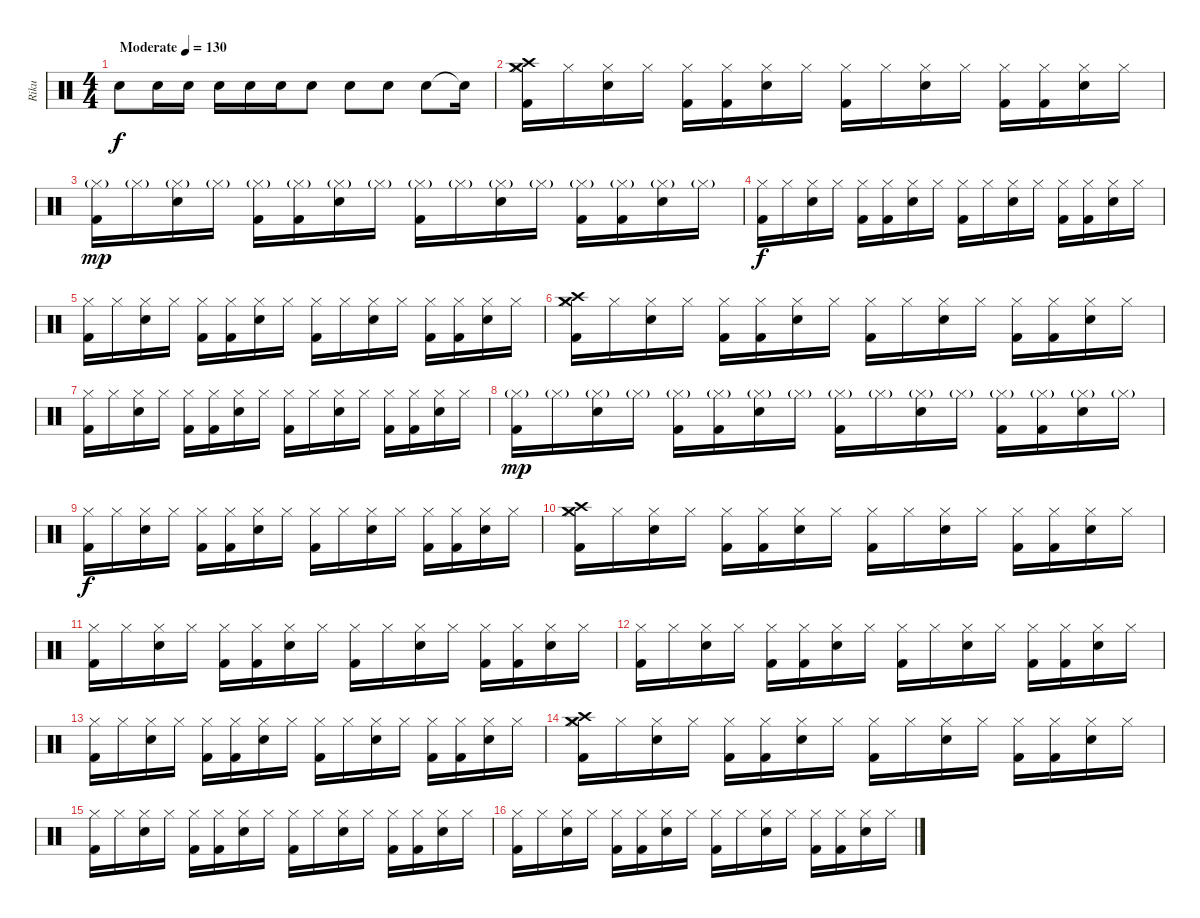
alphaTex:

\track ("Riku" "Riku") {instrument percussion}
\staff {score}
\articulation defaults
\ts (4 4)
\tempo (130 "Moderate")
\clef neutral
\ks c "Electric Snare (hit)".8{dy f} "Electric Snare (hit)".16 "Electric Snare (hit)".16 "Electric Snare (hit)".16 "Electric Snare (hit)".16 "Electric Snare (hit)".16 "Electric Snare (hit)".8 "Electric Snare (hit)".8 "Electric Snare (hit)".8 "Electric Snare (hit)".8 "Snare (hit)"{t}.16
|
("Hi-Hat (closed)" "Kick (hit) 2" "Crash high (hit)" "Crash medium (hit)").16 "Hi-Hat (closed)".16 ("Hi-Hat (closed)" "Snare (hit) 2").16 "Hi-Hat (closed)".16 ("Hi-Hat (closed)" "Kick (hit) 2").16 ("Hi-Hat (closed)" "Kick (hit) 2").16 ("Hi-Hat (closed)" "Snare (hit) 2").16 "Hi-Hat (closed)".16 ("Hi-Hat (closed)" "Kick (hit) 2").16 "Hi-Hat (closed)".16 ("Hi-Hat (closed)" "Snare (hit) 2").16 "Hi-Hat (closed)".16 ("Hi-Hat (closed)" "Kick (hit) 2").16 ("Hi-Hat (closed)" "Kick (hit) 2").16 ("Hi-Hat (closed)" "Snare (hit) 2").16 "Hi-Hat (closed)".16 |
("Hi-Hat (closed)"{g} "Kick (hit) 2").16{dy mp} "Hi-Hat (closed)"{g}.16 ("Hi-Hat (closed)"{g} "Snare (hit) 2").16 "Hi-Hat (closed)"{g}.16 ("Hi-Hat (closed)"{g} "Kick (hit) 2").16 ("Hi-Hat (closed)"{g} "Kick (hit) 2").16 ("Hi-Hat (closed)"{g} "Snare (hit) 2").16 "Hi-Hat (closed)"{g}.16 ("Hi-Hat (closed)"{g} "Kick (hit) 2").16 "Hi-Hat (closed)"{g}.16 ("Hi-Hat (closed)"{g} "Snare (hit) 2").16 "Hi-Hat (closed)"{g}.16 ("Hi-Hat (closed)"{g} "Kick (hit) 2").16 ("Hi-Hat (closed)"{g} "Kick (hit) 2").16 ("Hi-Hat (closed)"{g} "Snare (hit) 2").16 "Hi-Hat (closed)"{g}.16 |
("Hi-Hat (closed)" "Kick (hit) 2").16{dy f} "Hi-Hat (closed)".16 ("Hi-Hat (closed)" "Snare (hit) 2").16 "Hi-Hat (closed)".16 ("Hi-Hat (closed)" "Kick (hit) 2").16 ("Hi-Hat (closed)" "Kick (hit) 2").16 ("Hi-Hat (closed)" "Snare (hit) 2").16 "Hi-Hat (closed)".16 ("Hi-Hat (closed)" "Kick (hit) 2").16 "Hi-Hat (closed)".16 ("Hi-Hat (closed)" "Snare (hit) 2").16 "Hi-Hat (closed)".16 ("Hi-Hat (closed)" "Kick (hit) 2").16 ("Hi-Hat (closed)" "Kick (hit) 2").16 ("Hi-Hat (closed)" "Snare (hit) 2").16 "Hi-Hat (closed)".16 |
("Hi-Hat (closed)" "Kick (hit) 2").16 "Hi-Hat (closed)".16 ("Hi-Hat (closed)" "Snare (hit) 2").16 "Hi-Hat (closed)".16 ("Hi-Hat (closed)" "Kick (hit) 2").16 ("Hi-Hat (closed)" "Kick (hit) 2").16 ("Hi-Hat (closed)" "Snare (hit) 2").16 "Hi-Hat (closed)".16 ("Hi-Hat (closed)" "Kick (hit) 2").16 "Hi-Hat (closed)".16 ("Hi-Hat (closed)" "Snare (hit) 2").16 "Hi-Hat (closed)".16 ("Hi-Hat (closed)" "Kick (hit) 2").16 ("Hi-Hat (closed)" "Kick (hit) 2").16 ("Hi-Hat (closed)" "Snare (hit) 2").16 "Hi-Hat (closed)".16 |
("Hi-Hat (closed)" "Kick (hit) 2" "Crash high (hit)" "Crash medium (hit)").16 "Hi-Hat (closed)".16 ("Hi-Hat (closed)" "Snare (hit) 2").16 "Hi-Hat (closed)".16 ("Hi-Hat (closed)" "Kick (hit) 2").16 ("Hi-Hat (closed)" "Kick (hit) 2").16 ("Hi-Hat (closed)" "Snare (hit) 2").16 "Hi-Hat (closed)".16 ("Hi-Hat (closed)" "Kick (hit) 2").16 "Hi-Hat (closed)".16 ("Hi-Hat (closed)" "Snare (hit) 2").16 "Hi-Hat (closed)".16 ("Hi-Hat (closed)" "Kick (hit) 2").16 ("Hi-Hat (closed)" "Kick (hit) 2").16 ("Hi-Hat (closed)" "Snare (hit) 2").16 "Hi-Hat (closed)".16 |
("Hi-Hat (closed)" "Kick (hit) 2").16 "Hi-Hat (closed)".16 ("Hi-Hat (closed)" "Snare (hit) 2").16 "Hi-Hat (closed)".16 ("Hi-Hat (closed)" "Kick (hit) 2").16 ("Hi-Hat (closed)" "Kick (hit) 2").16 ("Hi-Hat (closed)" "Snare (hit) 2").16 "Hi-Hat (closed)".16 ("Hi-Hat (closed)" "Kick (hit) 2").16 "Hi-Hat (closed)".16 ("Hi-Hat (closed)" "Snare (hit) 2").16 "Hi-Hat (closed)".16 ("Hi-Hat (closed)" "Kick (hit) 2").16 ("Hi-Hat (closed)" "Kick (hit) 2").16 ("Hi-Hat (closed)" "Snare (hit) 2").16 "Hi-Hat (closed)".16 |
("Hi-Hat (closed)"{g} "Kick (hit) 2").16{dy mp} "Hi-Hat (closed)"{g}.16 ("Hi-Hat (closed)"{g} "Snare (hit) 2").16 "Hi-Hat (closed)"{g}.16 ("Hi-Hat (closed)"{g} "Kick (hit) 2").16 ("Hi-Hat (closed)"{g} "Kick (hit) 2").16 ("Hi-Hat (closed)"{g} "Snare (hit) 2").16 "Hi-Hat (closed)"{g}.16 ("Hi-Hat (closed)"{g} "Kick (hit) 2").16 "Hi-Hat (closed)"{g}.16 ("Hi-Hat (closed)"{g} "Snare (hit) 2").16 "Hi-Hat (closed)"{g}.16 ("Hi-Hat (closed)"{g} "Kick (hit) 2").16 ("Hi-Hat (closed)"{g} "Kick (hit) 2").16 ("Hi-Hat (closed)"{g} "Snare (hit) 2").16 "Hi-Hat (closed)"{g}.16 |
("Hi-Hat (closed)" "Kick (hit) 2").16{dy f} "Hi-Hat (closed)".16 ("Hi-Hat (closed)" "Snare (hit) 2").16 "Hi-Hat (closed)".16 ("Hi-Hat (closed)" "Kick (hit) 2").16 ("Hi-Hat (closed)" "Kick (hit) 2").16 ("Hi-Hat (closed)" "Snare (hit) 2").16 "Hi-Hat (closed)".16 ("Hi-Hat (closed)" "Kick (hit) 2").16 "Hi-Hat (closed)".16 ("Hi-Hat (closed)" "Snare (hit) 2").16 "Hi-Hat (closed)".16 ("Hi-Hat (closed)" "Kick (hit) 2").16 ("Hi-Hat (closed)" "Kick (hit) 2").16 ("Hi-Hat (closed)" "Snare (hit) 2").16 "Hi-Hat (closed)".16 |
("Hi-Hat (closed)" "Kick (hit) 2" "Crash high (hit)" "Crash medium (hit)").16 "Hi-Hat (closed)".16 ("Hi-Hat (closed)" "Snare (hit) 2").16 "Hi-Hat (closed)".16 ("Hi-Hat (closed)" "Kick (hit) 2").16 ("Hi-Hat (closed)" "Kick (hit) 2").16 ("Hi-Hat (closed)" "Snare (hit) 2").16 "Hi-Hat (closed)".16 ("Hi-Hat (closed)" "Kick (hit) 2").16 "Hi-Hat (closed)".16 ("Hi-Hat (closed)" "Snare (hit) 2").16 "Hi-Hat (closed)".16 ("Hi-Hat (closed)" "Kick (hit) 2").16 ("Hi-Hat (closed)" "Kick (hit) 2").16 ("Hi-Hat (closed)" "Snare (hit) 2").16 "Hi-Hat (closed)".16 |
("Hi-Hat (closed)" "Kick (hit) 2").16 "Hi-Hat (closed)".16 ("Hi-Hat (closed)" "Snare (hit) 2").16 "Hi-Hat (closed)".16 ("Hi-Hat (closed)" "Kick (hit) 2").16 ("Hi-Hat (closed)" "Kick (hit) 2").16 ("Hi-Hat (closed)" "Snare (hit) 2").16 "Hi-Hat (closed)".16 ("Hi-Hat (closed)" "Kick (hit) 2").16 "Hi-Hat (closed)".16 ("Hi-Hat (closed)" "Snare (hit) 2").16 "Hi-Hat (closed)".16 ("Hi-Hat (closed)" "Kick (hit) 2").16 ("Hi-Hat (closed)" "Kick (hit) 2").16 ("Hi-Hat (closed)" "Snare (hit) 2").16 "Hi-Hat (closed)".16 |
("Hi-Hat (closed)" "Kick (hit) 2").16 "Hi-Hat (closed)".16 ("Hi-Hat (closed)" "Snare (hit) 2").16 "Hi-Hat (closed)".16 ("Hi-Hat (closed)" "Kick (hit) 2").16 ("Hi-Hat (closed)" "Kick (hit) 2").16 ("Hi-Hat (closed)" "Snare (hit) 2").16 "Hi-Hat (closed)".16 ("Hi-Hat (closed)" "Kick (hit) 2").16 "Hi-Hat (closed)".16 ("Hi-Hat (closed)" "Snare (hit) 2").16 "Hi-Hat (closed)".16 ("Hi-Hat (closed)" "Kick (hit) 2").16 ("Hi-Hat (closed)" "Kick (hit) 2").16 ("Hi-Hat (closed)" "Snare (hit) 2").16 "Hi-Hat (closed)".16 |
("Hi-Hat (closed)" "Kick (hit) 2").16 "Hi-Hat (closed)".16 ("Hi-Hat (closed)" "Snare (hit) 2").16 "Hi-Hat (closed)".16 ("Hi-Hat (closed)" "Kick (hit) 2").16 ("Hi-Hat (closed)" "Kick (hit) 2").16 ("Hi-Hat (closed)" "Snare (hit) 2").16 "Hi-Hat (closed)".16 ("Hi-Hat (closed)" "Kick (hit) 2").16 "Hi-Hat (closed)".16 ("Hi-Hat (closed)" "Snare (hit) 2").16 "Hi-Hat (closed)".16 ("Hi-Hat (closed)" "Kick (hit) 2").16 ("Hi-Hat (closed)" "Kick (hit) 2").16 ("Hi-Hat (closed)" "Snare (hit) 2").16 "Hi-Hat (closed)".16 |
("Hi-Hat (closed)" "Kick (hit) 2" "Crash high (hit)" "Crash medium (hit)").16 "Hi-Hat (closed)".16 ("Hi-Hat (closed)" "Snare (hit) 2").16 "Hi-Hat (closed)".16 ("Hi-Hat (closed)" "Kick (hit) 2").16 ("Hi-Hat (closed)" "Kick (hit) 2").16 ("Hi-Hat (closed)" "Snare (hit) 2").16 "Hi-Hat (closed)".16 ("Hi-Hat (closed)" "Kick (hit) 2").16 "Hi-Hat (closed)".16 ("Hi-Hat (closed)" "Snare (hit) 2").16 "Hi-Hat (closed)".16 ("Hi-Hat (closed)" "Kick (hit) 2").16 ("Hi-Hat (closed)" "Kick (hit) 2").16 ("Hi-Hat (closed)" "Snare (hit) 2").16 "Hi-Hat (closed)".16 |
("Hi-Hat (closed)" "Kick (hit) 2").16 "Hi-Hat (closed)".16 ("Hi-Hat (closed)" "Snare (hit) 2").16 "Hi-Hat (closed)".16 ("Hi-Hat (closed)" "Kick (hit) 2").16 ("Hi-Hat (closed)" "Kick (hit) 2").16 ("Hi-Hat (closed)" "Snare (hit) 2").16 "Hi-Hat (closed)".16 ("Hi-Hat (closed)" "Kick (hit) 2").16 "Hi-Hat (closed)".16 ("Hi-Hat (closed)" "Snare (hit) 2").16 "Hi-Hat (closed)".16 ("Hi-Hat (closed)" "Kick (hit) 2").16 ("Hi-Hat (closed)" "Kick (hit) 2").16 ("Hi-Hat (closed)" "Snare (hit) 2").16 "Hi-Hat (closed)".16 |
("Hi-Hat (closed)" "Kick (hit) 2").16 "Hi-Hat (closed)".16 ("Hi-Hat (closed)" "Snare (hit) 2").16 "Hi-Hat (closed)".16 ("Hi-Hat (closed)" "Kick (hit) 2").16 ("Hi-Hat (closed)" "Kick (hit) 2").16 ("Hi-Hat (closed)" "Snare (hit) 2").16 "Hi-Hat (closed)".16 ("Hi-Hat (closed)" "Kick (hit) 2").16 "Hi-Hat (closed)".16 ("Hi-Hat (closed)" "Snare (hit) 2").16 "Hi-Hat (closed)".16 ("Hi-Hat (closed)" "Kick (hit) 2").16 ("Hi-Hat (closed)" "Kick (hit) 2").16 ("Hi-Hat (closed)" "Snare (hit) 2").16 "Hi-Hat (closed)".16
